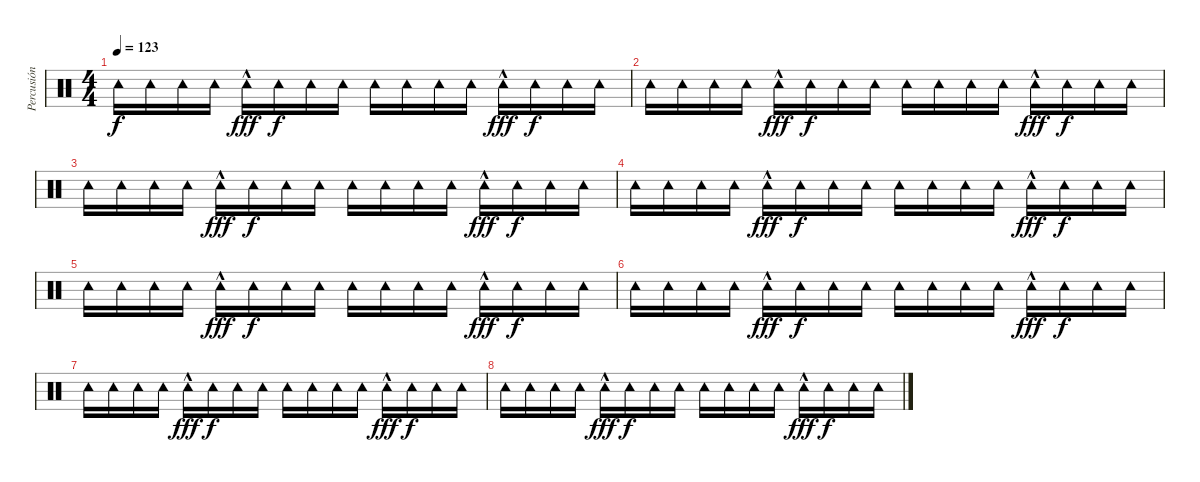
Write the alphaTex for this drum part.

\track ("Percusión" "Percusión") {instrument percussion}
\staff {score}
\articulation defaults
\ts (4 4)
\tempo 123
\clef neutral
\ks c "Tambourine (hit)".16{dy f} "Tambourine (hit)".16 "Tambourine (hit)".16 "Tambourine (hit)".16 "Tambourine (hit)"{hac}.16{dy fff} "Tambourine (hit)".16{dy f} "Tambourine (hit)".16 "Tambourine (hit)".16 "Tambourine (hit)".16 "Tambourine (hit)".16 "Tambourine (hit)".16 "Tambourine (hit)".16 "Tambourine (hit)"{hac}.16{dy fff} "Tambourine (hit)".16{dy f} "Tambourine (hit)".16 "Tambourine (hit)".16
|
"Tambourine (hit)".16 "Tambourine (hit)".16 "Tambourine (hit)".16 "Tambourine (hit)".16 "Tambourine (hit)"{hac}.16{dy fff} "Tambourine (hit)".16{dy f} "Tambourine (hit)".16 "Tambourine (hit)".16 "Tambourine (hit)".16 "Tambourine (hit)".16 "Tambourine (hit)".16 "Tambourine (hit)".16 "Tambourine (hit)"{hac}.16{dy fff} "Tambourine (hit)".16{dy f} "Tambourine (hit)".16 "Tambourine (hit)".16 |
"Tambourine (hit)".16 "Tambourine (hit)".16 "Tambourine (hit)".16 "Tambourine (hit)".16 "Tambourine (hit)"{hac}.16{dy fff} "Tambourine (hit)".16{dy f} "Tambourine (hit)".16 "Tambourine (hit)".16 "Tambourine (hit)".16 "Tambourine (hit)".16 "Tambourine (hit)".16 "Tambourine (hit)".16 "Tambourine (hit)"{hac}.16{dy fff} "Tambourine (hit)".16{dy f} "Tambourine (hit)".16 "Tambourine (hit)".16 |
"Tambourine (hit)".16 "Tambourine (hit)".16 "Tambourine (hit)".16 "Tambourine (hit)".16 "Tambourine (hit)"{hac}.16{dy fff} "Tambourine (hit)".16{dy f} "Tambourine (hit)".16 "Tambourine (hit)".16 "Tambourine (hit)".16 "Tambourine (hit)".16 "Tambourine (hit)".16 "Tambourine (hit)".16 "Tambourine (hit)"{hac}.16{dy fff} "Tambourine (hit)".16{dy f} "Tambourine (hit)".16 "Tambourine (hit)".16 |
"Tambourine (hit)".16 "Tambourine (hit)".16 "Tambourine (hit)".16 "Tambourine (hit)".16 "Tambourine (hit)"{hac}.16{dy fff} "Tambourine (hit)".16{dy f} "Tambourine (hit)".16 "Tambourine (hit)".16 "Tambourine (hit)".16 "Tambourine (hit)".16 "Tambourine (hit)".16 "Tambourine (hit)".16 "Tambourine (hit)"{hac}.16{dy fff} "Tambourine (hit)".16{dy f} "Tambourine (hit)".16 "Tambourine (hit)".16 |
"Tambourine (hit)".16 "Tambourine (hit)".16 "Tambourine (hit)".16 "Tambourine (hit)".16 "Tambourine (hit)"{hac}.16{dy fff} "Tambourine (hit)".16{dy f} "Tambourine (hit)".16 "Tambourine (hit)".16 "Tambourine (hit)".16 "Tambourine (hit)".16 "Tambourine (hit)".16 "Tambourine (hit)".16 "Tambourine (hit)"{hac}.16{dy fff} "Tambourine (hit)".16{dy f} "Tambourine (hit)".16 "Tambourine (hit)".16 |
"Tambourine (hit)".16 "Tambourine (hit)".16 "Tambourine (hit)".16 "Tambourine (hit)".16 "Tambourine (hit)"{hac}.16{dy fff} "Tambourine (hit)".16{dy f} "Tambourine (hit)".16 "Tambourine (hit)".16 "Tambourine (hit)".16 "Tambourine (hit)".16 "Tambourine (hit)".16 "Tambourine (hit)".16 "Tambourine (hit)"{hac}.16{dy fff} "Tambourine (hit)".16{dy f} "Tambourine (hit)".16 "Tambourine (hit)".16 |
"Tambourine (hit)".16 "Tambourine (hit)".16 "Tambourine (hit)".16 "Tambourine (hit)".16 "Tambourine (hit)"{hac}.16{dy fff} "Tambourine (hit)".16{dy f} "Tambourine (hit)".16 "Tambourine (hit)".16 "Tambourine (hit)".16 "Tambourine (hit)".16 "Tambourine (hit)".16 "Tambourine (hit)".16 "Tambourine (hit)"{hac}.16{dy fff} "Tambourine (hit)".16{dy f} "Tambourine (hit)".16 "Tambourine (hit)".16
